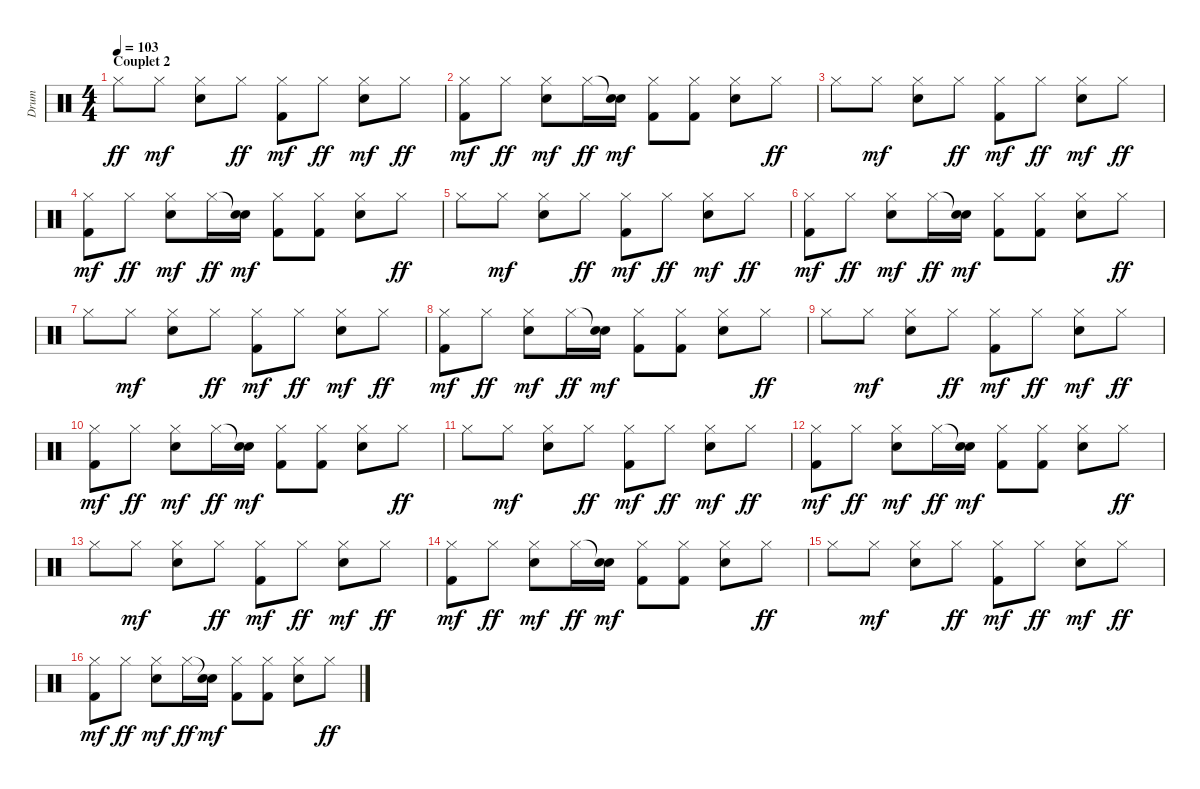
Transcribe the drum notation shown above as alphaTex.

\track ("Drum" "Drum") {instrument percussion}
\staff {score}
\articulation defaults
\ts (4 4)
\section ("" "Couplet 2")
\tempo 103
\clef neutral
\ks c "Hi-Hat (closed)".8{dy ff} "Hi-Hat (closed)".8{dy mf}
("Hi-Hat (closed)" "Electric Snare (hit)").8 "Hi-Hat (closed)".8{dy ff} ("Hi-Hat (closed)" "Kick (hit) 2").8{dy mf} "Hi-Hat (closed)".8{dy ff} ("Hi-Hat (closed)" "Electric Snare (hit)").8{dy mf} "Hi-Hat (closed)".8{dy ff} |
("Hi-Hat (closed)" "Kick (hit) 2").8{dy mf} "Hi-Hat (closed)".8{dy ff} ("Hi-Hat (closed)" "Electric Snare (hit)").8{dy mf} "Hi-Hat (closed)".16{dy ff} ("Snare (hit)"{t} "Electric Snare (hit)").16{dy mf} ("Hi-Hat (closed)" "Kick (hit) 2").8 ("Hi-Hat (closed)" "Kick (hit) 2").8 ("Hi-Hat (closed)" "Electric Snare (hit)").8 "Hi-Hat (closed)".8{dy ff} |
"Hi-Hat (closed)".8 "Hi-Hat (closed)".8{dy mf} ("Hi-Hat (closed)" "Electric Snare (hit)").8 "Hi-Hat (closed)".8{dy ff} ("Hi-Hat (closed)" "Kick (hit) 2").8{dy mf} "Hi-Hat (closed)".8{dy ff} ("Hi-Hat (closed)" "Electric Snare (hit)").8{dy mf} "Hi-Hat (closed)".8{dy ff} |
("Hi-Hat (closed)" "Kick (hit) 2").8{dy mf} "Hi-Hat (closed)".8{dy ff} ("Hi-Hat (closed)" "Electric Snare (hit)").8{dy mf} "Hi-Hat (closed)".16{dy ff} ("Snare (hit)"{t} "Electric Snare (hit)").16{dy mf} ("Hi-Hat (closed)" "Kick (hit) 2").8 ("Hi-Hat (closed)" "Kick (hit) 2").8 ("Hi-Hat (closed)" "Electric Snare (hit)").8 "Hi-Hat (closed)".8{dy ff} |
"Hi-Hat (closed)".8 "Hi-Hat (closed)".8{dy mf} ("Hi-Hat (closed)" "Electric Snare (hit)").8 "Hi-Hat (closed)".8{dy ff} ("Hi-Hat (closed)" "Kick (hit) 2").8{dy mf} "Hi-Hat (closed)".8{dy ff} ("Hi-Hat (closed)" "Electric Snare (hit)").8{dy mf} "Hi-Hat (closed)".8{dy ff} |
("Hi-Hat (closed)" "Kick (hit) 2").8{dy mf} "Hi-Hat (closed)".8{dy ff} ("Hi-Hat (closed)" "Electric Snare (hit)").8{dy mf} "Hi-Hat (closed)".16{dy ff} ("Snare (hit)"{t} "Electric Snare (hit)").16{dy mf} ("Hi-Hat (closed)" "Kick (hit) 2").8 ("Hi-Hat (closed)" "Kick (hit) 2").8 ("Hi-Hat (closed)" "Electric Snare (hit)").8 "Hi-Hat (closed)".8{dy ff} |
"Hi-Hat (closed)".8 "Hi-Hat (closed)".8{dy mf} ("Hi-Hat (closed)" "Electric Snare (hit)").8 "Hi-Hat (closed)".8{dy ff} ("Hi-Hat (closed)" "Kick (hit) 2").8{dy mf} "Hi-Hat (closed)".8{dy ff} ("Hi-Hat (closed)" "Electric Snare (hit)").8{dy mf} "Hi-Hat (closed)".8{dy ff} |
("Hi-Hat (closed)" "Kick (hit) 2").8{dy mf} "Hi-Hat (closed)".8{dy ff} ("Hi-Hat (closed)" "Electric Snare (hit)").8{dy mf} "Hi-Hat (closed)".16{dy ff} ("Snare (hit)"{t} "Electric Snare (hit)").16{dy mf} ("Hi-Hat (closed)" "Kick (hit) 2").8 ("Hi-Hat (closed)" "Kick (hit) 2").8 ("Hi-Hat (closed)" "Electric Snare (hit)").8 "Hi-Hat (closed)".8{dy ff} |
"Hi-Hat (closed)".8 "Hi-Hat (closed)".8{dy mf} ("Hi-Hat (closed)" "Electric Snare (hit)").8 "Hi-Hat (closed)".8{dy ff} ("Hi-Hat (closed)" "Kick (hit) 2").8{dy mf} "Hi-Hat (closed)".8{dy ff} ("Hi-Hat (closed)" "Electric Snare (hit)").8{dy mf} "Hi-Hat (closed)".8{dy ff} |
("Hi-Hat (closed)" "Kick (hit) 2").8{dy mf} "Hi-Hat (closed)".8{dy ff} ("Hi-Hat (closed)" "Electric Snare (hit)").8{dy mf} "Hi-Hat (closed)".16{dy ff} ("Snare (hit)"{t} "Electric Snare (hit)").16{dy mf} ("Hi-Hat (closed)" "Kick (hit) 2").8 ("Hi-Hat (closed)" "Kick (hit) 2").8 ("Hi-Hat (closed)" "Electric Snare (hit)").8 "Hi-Hat (closed)".8{dy ff} |
"Hi-Hat (closed)".8 "Hi-Hat (closed)".8{dy mf} ("Hi-Hat (closed)" "Electric Snare (hit)").8 "Hi-Hat (closed)".8{dy ff} ("Hi-Hat (closed)" "Kick (hit) 2").8{dy mf} "Hi-Hat (closed)".8{dy ff} ("Hi-Hat (closed)" "Electric Snare (hit)").8{dy mf} "Hi-Hat (closed)".8{dy ff} |
("Hi-Hat (closed)" "Kick (hit) 2").8{dy mf} "Hi-Hat (closed)".8{dy ff} ("Hi-Hat (closed)" "Electric Snare (hit)").8{dy mf} "Hi-Hat (closed)".16{dy ff} ("Snare (hit)"{t} "Electric Snare (hit)").16{dy mf} ("Hi-Hat (closed)" "Kick (hit) 2").8 ("Hi-Hat (closed)" "Kick (hit) 2").8 ("Hi-Hat (closed)" "Electric Snare (hit)").8 "Hi-Hat (closed)".8{dy ff} |
"Hi-Hat (closed)".8 "Hi-Hat (closed)".8{dy mf} ("Hi-Hat (closed)" "Electric Snare (hit)").8 "Hi-Hat (closed)".8{dy ff} ("Hi-Hat (closed)" "Kick (hit) 2").8{dy mf} "Hi-Hat (closed)".8{dy ff} ("Hi-Hat (closed)" "Electric Snare (hit)").8{dy mf} "Hi-Hat (closed)".8{dy ff} |
("Hi-Hat (closed)" "Kick (hit) 2").8{dy mf} "Hi-Hat (closed)".8{dy ff} ("Hi-Hat (closed)" "Electric Snare (hit)").8{dy mf} "Hi-Hat (closed)".16{dy ff} ("Snare (hit)"{t} "Electric Snare (hit)").16{dy mf} ("Hi-Hat (closed)" "Kick (hit) 2").8 ("Hi-Hat (closed)" "Kick (hit) 2").8 ("Hi-Hat (closed)" "Electric Snare (hit)").8 "Hi-Hat (closed)".8{dy ff} |
"Hi-Hat (closed)".8 "Hi-Hat (closed)".8{dy mf} ("Hi-Hat (closed)" "Electric Snare (hit)").8 "Hi-Hat (closed)".8{dy ff} ("Hi-Hat (closed)" "Kick (hit) 2").8{dy mf} "Hi-Hat (closed)".8{dy ff} ("Hi-Hat (closed)" "Electric Snare (hit)").8{dy mf} "Hi-Hat (closed)".8{dy ff} |
("Hi-Hat (closed)" "Kick (hit) 2").8{dy mf} "Hi-Hat (closed)".8{dy ff} ("Hi-Hat (closed)" "Electric Snare (hit)").8{dy mf} "Hi-Hat (closed)".16{dy ff} ("Snare (hit)"{t} "Electric Snare (hit)").16{dy mf} ("Hi-Hat (closed)" "Kick (hit) 2").8 ("Hi-Hat (closed)" "Kick (hit) 2").8 ("Hi-Hat (closed)" "Electric Snare (hit)").8 "Hi-Hat (closed)".8{dy ff}
